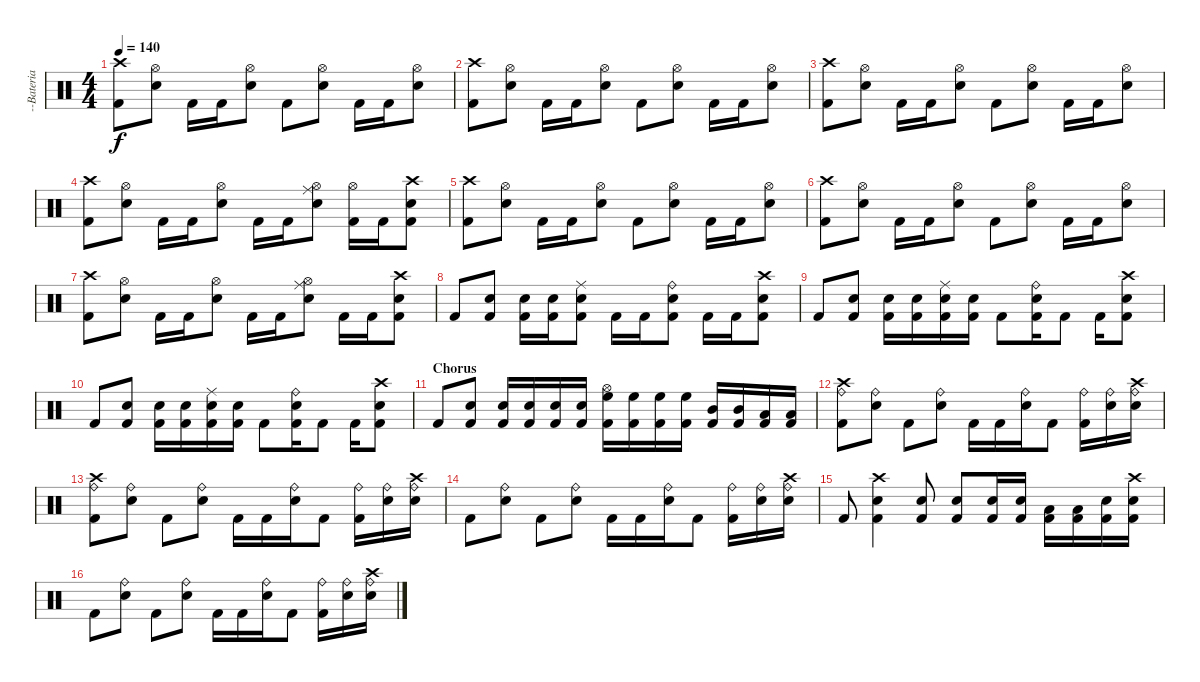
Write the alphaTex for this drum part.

\track ("--Bateria de la ostia" "--Bateria ") {instrument percussion}
\staff {score}
\articulation defaults
\ts (4 4)
\tempo 140
\clef neutral
\ks c
("Crash high (hit)" "Kick (hit) 2").8{dy f} ("Hi-Hat (open)" "Snare (hit) 2").8 "Kick (hit) 2".16 "Kick (hit) 2".16 ("Hi-Hat (open)" "Snare (hit) 2").8 "Kick (hit) 2".8 ("Hi-Hat (open)" "Snare (hit) 2").8 "Kick (hit) 2".16 "Kick (hit) 2".16 ("Hi-Hat (open)" "Snare (hit) 2").8 |
("Crash high (hit)" "Kick (hit) 2").8 ("Hi-Hat (open)" "Snare (hit) 2").8 "Kick (hit) 2".16 "Kick (hit) 2".16 ("Hi-Hat (open)" "Snare (hit) 2").8 "Kick (hit) 2".8 ("Hi-Hat (open)" "Snare (hit) 2").8 "Kick (hit) 2".16 "Kick (hit) 2".16 ("Hi-Hat (open)" "Snare (hit) 2").8 |
("Crash high (hit)" "Kick (hit) 2").8 ("Hi-Hat (open)" "Snare (hit) 2").8 "Kick (hit) 2".16 "Kick (hit) 2".16 ("Hi-Hat (open)" "Snare (hit) 2").8 "Kick (hit) 2".8 ("Hi-Hat (open)" "Snare (hit) 2").8 "Kick (hit) 2".16 "Kick (hit) 2".16 ("Hi-Hat (open)" "Snare (hit) 2").8 |
("Crash high (hit)" "Kick (hit) 2").8 ("Hi-Hat (open)" "Snare (hit) 2").8 "Kick (hit) 2".16 "Kick (hit) 2".16 ("Hi-Hat (open)" "Snare (hit) 2").8 "Kick (hit) 2".16 "Kick (hit) 2".16 ("Ride (middle)" "Hi-Hat (open)" "Snare (hit) 2").8 ("Hi-Hat (open)" "Kick (hit) 2").16 "Kick (hit) 2".16 ("Crash high (hit)" "Snare (hit) 2" "Kick (hit) 2").8 |
("Crash high (hit)" "Kick (hit) 2").8 ("Hi-Hat (open)" "Snare (hit) 2").8 "Kick (hit) 2".16 "Kick (hit) 2".16 ("Hi-Hat (open)" "Snare (hit) 2").8 "Kick (hit) 2".8 ("Hi-Hat (open)" "Snare (hit) 2").8 "Kick (hit) 2".16 "Kick (hit) 2".16 ("Hi-Hat (open)" "Snare (hit) 2").8 |
("Crash high (hit)" "Kick (hit) 2").8 ("Hi-Hat (open)" "Snare (hit) 2").8 "Kick (hit) 2".16 "Kick (hit) 2".16 ("Hi-Hat (open)" "Snare (hit) 2").8 "Kick (hit) 2".8 ("Hi-Hat (open)" "Snare (hit) 2").8 "Kick (hit) 2".16 "Kick (hit) 2".16 ("Hi-Hat (open)" "Snare (hit) 2").8 |
("Crash high (hit)" "Kick (hit) 2").8 ("Hi-Hat (open)" "Snare (hit) 2").8 "Kick (hit) 2".16 "Kick (hit) 2".16 ("Hi-Hat (open)" "Snare (hit) 2").8 "Kick (hit) 2".16 "Kick (hit) 2".16 ("Ride (middle)" "Hi-Hat (open)" "Snare (hit) 2").8 "Kick (hit) 2".16 "Kick (hit) 2".16 ("Crash high (hit)" "Snare (hit) 2" "Kick (hit) 2").8 |
"Kick (hit) 2".8 ("Snare (hit) 2" "Kick (hit) 2").8 ("Snare (hit) 2" "Kick (hit) 2").16 ("Snare (hit) 2" "Kick (hit) 2").16 ("Ride (middle)" "Snare (hit) 2" "Kick (hit) 2").8 "Kick (hit) 2".16 "Kick (hit) 2".16 ("Ride (bell)" "Snare (hit) 2" "Kick (hit) 2").8 "Kick (hit) 2".16 "Kick (hit) 2".16 ("Crash high (hit)" "Snare (hit) 2" "Kick (hit) 2").8 |
"Kick (hit) 2".8 ("Snare (hit) 2" "Kick (hit) 2").8 ("Snare (hit) 2" "Kick (hit) 2").16 ("Snare (hit) 2" "Kick (hit) 2").16 ("Ride (middle)" "Snare (hit) 2" "Kick (hit) 2").16 ("Snare (hit) 2" "Kick (hit) 2").16 "Kick (hit) 2".8 ("Ride (bell)" "Snare (hit) 2" "Kick (hit) 2").16 "Kick (hit) 2".8 "Kick (hit) 2".16 ("Crash high (hit)" "Snare (hit) 2" "Kick (hit) 2").8 |
"Kick (hit) 2".8 ("Snare (hit) 2" "Kick (hit) 2").8 ("Snare (hit) 2" "Kick (hit) 2").16 ("Snare (hit) 2" "Kick (hit) 2").16 ("Ride (middle)" "Snare (hit) 2" "Kick (hit) 2").16 ("Snare (hit) 2" "Kick (hit) 2").16 "Kick (hit) 2".8 ("Ride (bell)" "Snare (hit) 2" "Kick (hit) 2").16 "Kick (hit) 2".8 "Kick (hit) 2".16 ("Crash high (hit)" "Snare (hit) 2" "Kick (hit) 2").8 |
\section ("" "Chorus")
"Kick (hit) 2".8 ("Snare (hit) 2" "Kick (hit) 2").8 ("Snare (hit) 2" "Kick (hit) 2").16 ("Snare (hit) 2" "Kick (hit) 2").16 ("Snare (hit) 2" "Kick (hit) 2").16 ("Snare (hit) 2" "Kick (hit) 2").16 ("Hi-Hat (open)" "High Floor Tom (hit)" "Kick (hit) 2").16 ("High Floor Tom (hit)" "Kick (hit) 2").16 ("High Floor Tom (hit)" "Kick (hit) 2").16 ("High Floor Tom (hit)" "Kick (hit) 2").16 ("Mid Tom (hit)" "Kick (hit) 2").16 ("Mid Tom (hit)" "Kick (hit) 2").16 ("Low Tom (hit)" "Kick (hit) 2").16 ("Low Tom (hit)" "Kick (hit) 2").16 |
("Crash high (hit)" "Ride (bell)" "Kick (hit) 2").8 ("Ride (bell)" "Snare (hit) 2").8 "Kick (hit) 2".8 ("Ride (bell)" "Snare (hit) 2").8 "Kick (hit) 2".16 "Kick (hit) 2".16 ("Ride (bell)" "Snare (hit) 2").16 "Kick (hit) 2".8 ("Ride (bell)" "Kick (hit) 2").16 ("Ride (bell)" "Snare (hit) 2").16 ("Ride (bell)" "Crash high (hit)" "Snare (hit) 2").16 |
("Crash high (hit)" "Ride (bell)" "Kick (hit) 2").8 ("Ride (bell)" "Snare (hit) 2").8 "Kick (hit) 2".8 ("Ride (bell)" "Snare (hit) 2").8 "Kick (hit) 2".16 "Kick (hit) 2".16 ("Ride (bell)" "Snare (hit) 2").16 "Kick (hit) 2".8 ("Ride (bell)" "Kick (hit) 2").16 ("Ride (bell)" "Snare (hit) 2").16 ("Ride (bell)" "Crash high (hit)" "Snare (hit) 2").16 |
"Kick (hit) 2".8 ("Ride (bell)" "Snare (hit) 2").8 "Kick (hit) 2".8 ("Ride (bell)" "Snare (hit) 2").8 "Kick (hit) 2".16 "Kick (hit) 2".16 ("Ride (bell)" "Snare (hit) 2").16 "Kick (hit) 2".8 ("Ride (bell)" "Kick (hit) 2").16 ("Ride (bell)" "Snare (hit) 2").16 ("Ride (bell)" "Crash high (hit)" "Snare (hit) 2").16 |
"Kick (hit) 2".8 ("Crash high (hit)" "Snare (hit) 2" "Kick (hit) 2").4 ("Snare (hit) 2" "Kick (hit) 2").8 ("Snare (hit) 2" "Kick (hit) 2").8 ("Snare (hit) 2" "Kick (hit) 2").16 ("Snare (hit) 2" "Kick (hit) 2").16 ("Low Tom (hit)" "Kick (hit) 2").16 ("Low Tom (hit)" "Kick (hit) 2").16 ("Snare (hit) 2" "Kick (hit) 2").16 ("Crash high (hit)" "Snare (hit) 2" "Kick (hit) 2").16 |
"Kick (hit) 2".8 ("Ride (bell)" "Snare (hit) 2").8 "Kick (hit) 2".8 ("Ride (bell)" "Snare (hit) 2").8 "Kick (hit) 2".16 "Kick (hit) 2".16 ("Ride (bell)" "Snare (hit) 2").16 "Kick (hit) 2".8 ("Ride (bell)" "Kick (hit) 2").16 ("Ride (bell)" "Snare (hit) 2").16 ("Ride (bell)" "Crash high (hit)" "Snare (hit) 2").16
